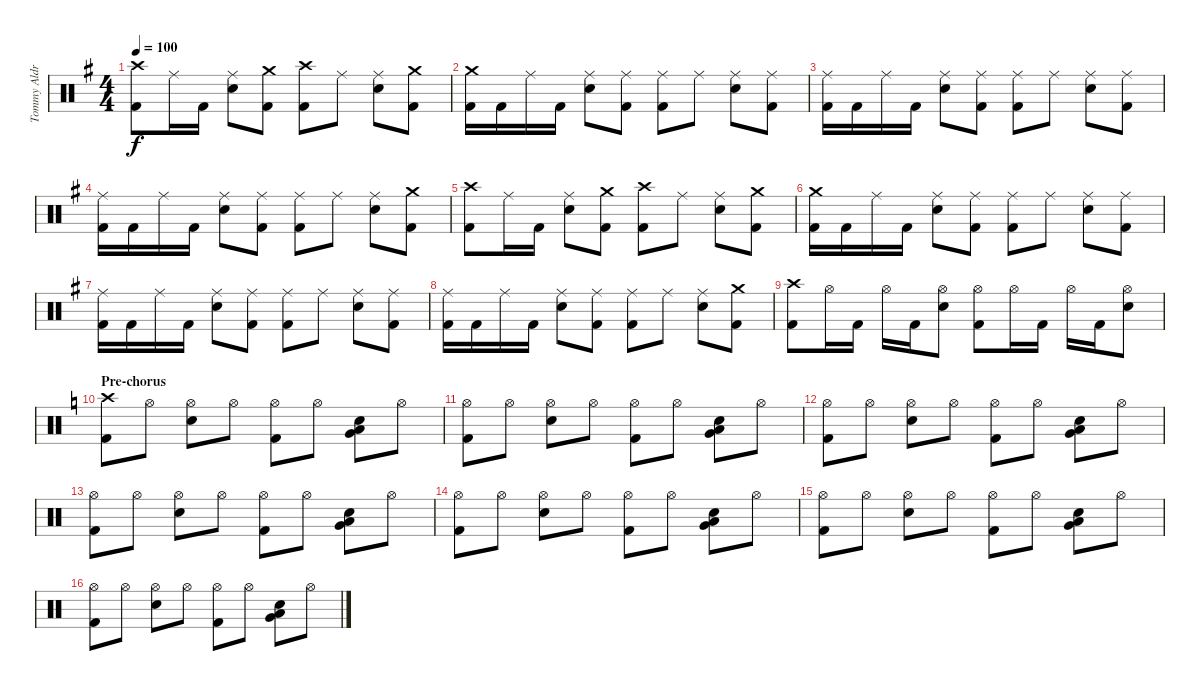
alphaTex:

\track ("Tommy Aldridge" "Tommy Aldr") {instrument percussion}
\staff {score}
\articulation defaults
\ts (4 4)
\tempo 100
\clef neutral
\ks eminor
("Crash high (hit)" "Kick (hit) 2").8{dy f} "Ride (middle)".16 "Kick (hit) 2".16 ("Ride (middle)" "Electric Snare (hit)").8 ("Crash medium (hit)" "Kick (hit) 2").8 ("Crash high (hit)" "Kick (hit) 2").8 "Ride (middle)".8 ("Ride (middle)" "Electric Snare (hit)").8 ("Crash medium (hit)" "Kick (hit) 2").8 |
("Crash medium (hit)" "Kick (hit) 2").16 "Kick (hit) 2".16 "Ride (middle)".16 "Kick (hit) 2".16 ("Ride (middle)" "Electric Snare (hit)").8 ("Ride (middle)" "Kick (hit) 2").8 ("Ride (middle)" "Kick (hit) 2").8 "Ride (middle)".8 ("Ride (middle)" "Electric Snare (hit)").8 ("Ride (middle)" "Kick (hit) 2").8 |
("Ride (middle)" "Kick (hit) 2").16 "Kick (hit) 2".16 "Ride (middle)".16 "Kick (hit) 2".16 ("Ride (middle)" "Electric Snare (hit)").8 ("Ride (middle)" "Kick (hit) 2").8 ("Ride (middle)" "Kick (hit) 2").8 "Ride (middle)".8 ("Ride (middle)" "Electric Snare (hit)").8 ("Ride (middle)" "Kick (hit) 2").8 |
("Ride (middle)" "Kick (hit) 2").16 "Kick (hit) 2".16 "Ride (middle)".16 "Kick (hit) 2".16 ("Ride (middle)" "Electric Snare (hit)").8 ("Ride (middle)" "Kick (hit) 2").8 ("Ride (middle)" "Kick (hit) 2").8 "Ride (middle)".8 ("Ride (middle)" "Electric Snare (hit)").8 ("Crash medium (hit)" "Kick (hit) 2").8 |
("Crash high (hit)" "Kick (hit) 2").8 "Ride (middle)".16 "Kick (hit) 2".16 ("Ride (middle)" "Electric Snare (hit)").8 ("Crash medium (hit)" "Kick (hit) 2").8 ("Crash high (hit)" "Kick (hit) 2").8 "Ride (middle)".8 ("Ride (middle)" "Electric Snare (hit)").8 ("Crash medium (hit)" "Kick (hit) 2").8 |
("Crash medium (hit)" "Kick (hit) 2").16 "Kick (hit) 2".16 "Ride (middle)".16 "Kick (hit) 2".16 ("Ride (middle)" "Electric Snare (hit)").8 ("Ride (middle)" "Kick (hit) 2").8 ("Ride (middle)" "Kick (hit) 2").8 "Ride (middle)".8 ("Ride (middle)" "Electric Snare (hit)").8 ("Ride (middle)" "Kick (hit) 2").8 |
("Ride (middle)" "Kick (hit) 2").16 "Kick (hit) 2".16 "Ride (middle)".16 "Kick (hit) 2".16 ("Ride (middle)" "Electric Snare (hit)").8 ("Ride (middle)" "Kick (hit) 2").8 ("Ride (middle)" "Kick (hit) 2").8 "Ride (middle)".8 ("Ride (middle)" "Electric Snare (hit)").8 ("Ride (middle)" "Kick (hit) 2").8 |
("Ride (middle)" "Kick (hit) 2").16 "Kick (hit) 2".16 "Ride (middle)".16 "Kick (hit) 2".16 ("Ride (middle)" "Electric Snare (hit)").8 ("Ride (middle)" "Kick (hit) 2").8 ("Ride (middle)" "Kick (hit) 2").8 "Ride (middle)".8 ("Ride (middle)" "Electric Snare (hit)").8 ("Crash medium (hit)" "Kick (hit) 2").8 |
("Crash high (hit)" "Kick (hit) 2").8 "Hi-Hat (open)".16 "Kick (hit) 2".16 "Hi-Hat (open)".16 "Kick (hit) 2".16 ("Hi-Hat (open)" "Electric Snare (hit)").8 ("Hi-Hat (open)" "Kick (hit) 2").8 "Hi-Hat (open)".16 "Kick (hit) 2".16 "Hi-Hat (open)".16 "Kick (hit) 2".16 ("Hi-Hat (open)" "Electric Snare (hit)").8 |
\section ("" "Pre-chorus")
\ks aminor
("Crash high (hit)" "Kick (hit) 2").8 "Hi-Hat (open)".8 ("Hi-Hat (open)" "Electric Snare (hit)").8 "Hi-Hat (open)".8 ("Hi-Hat (open)" "Kick (hit) 2").8 "Hi-Hat (open)".8 ("Very Low Tom (hit)" "Low Floor Tom (hit)" "Electric Snare (hit)").8 "Hi-Hat (open)".8 |
("Hi-Hat (open)" "Kick (hit) 2").8 "Hi-Hat (open)".8 ("Hi-Hat (open)" "Electric Snare (hit)").8 "Hi-Hat (open)".8 ("Hi-Hat (open)" "Kick (hit) 2").8 "Hi-Hat (open)".8 ("Very Low Tom (hit)" "Low Floor Tom (hit)" "Electric Snare (hit)").8 "Hi-Hat (open)".8 |
("Hi-Hat (open)" "Kick (hit) 2").8 "Hi-Hat (open)".8 ("Hi-Hat (open)" "Electric Snare (hit)").8 "Hi-Hat (open)".8 ("Hi-Hat (open)" "Kick (hit) 2").8 "Hi-Hat (open)".8 ("Very Low Tom (hit)" "Low Floor Tom (hit)" "Electric Snare (hit)").8 "Hi-Hat (open)".8 |
("Hi-Hat (open)" "Kick (hit) 2").8 "Hi-Hat (open)".8 ("Hi-Hat (open)" "Electric Snare (hit)").8 "Hi-Hat (open)".8 ("Hi-Hat (open)" "Kick (hit) 2").8 "Hi-Hat (open)".8 ("Very Low Tom (hit)" "Low Floor Tom (hit)" "Electric Snare (hit)").8 "Hi-Hat (open)".8 |
("Hi-Hat (open)" "Kick (hit) 2").8 "Hi-Hat (open)".8 ("Hi-Hat (open)" "Electric Snare (hit)").8 "Hi-Hat (open)".8 ("Hi-Hat (open)" "Kick (hit) 2").8 "Hi-Hat (open)".8 ("Very Low Tom (hit)" "Low Floor Tom (hit)" "Electric Snare (hit)").8 "Hi-Hat (open)".8 |
("Hi-Hat (open)" "Kick (hit) 2").8 "Hi-Hat (open)".8 ("Hi-Hat (open)" "Electric Snare (hit)").8 "Hi-Hat (open)".8 ("Hi-Hat (open)" "Kick (hit) 2").8 "Hi-Hat (open)".8 ("Very Low Tom (hit)" "Low Floor Tom (hit)" "Electric Snare (hit)").8 "Hi-Hat (open)".8 |
("Hi-Hat (open)" "Kick (hit) 2").8 "Hi-Hat (open)".8 ("Hi-Hat (open)" "Electric Snare (hit)").8 "Hi-Hat (open)".8 ("Hi-Hat (open)" "Kick (hit) 2").8 "Hi-Hat (open)".8 ("Very Low Tom (hit)" "Low Floor Tom (hit)" "Electric Snare (hit)").8 "Hi-Hat (open)".8
